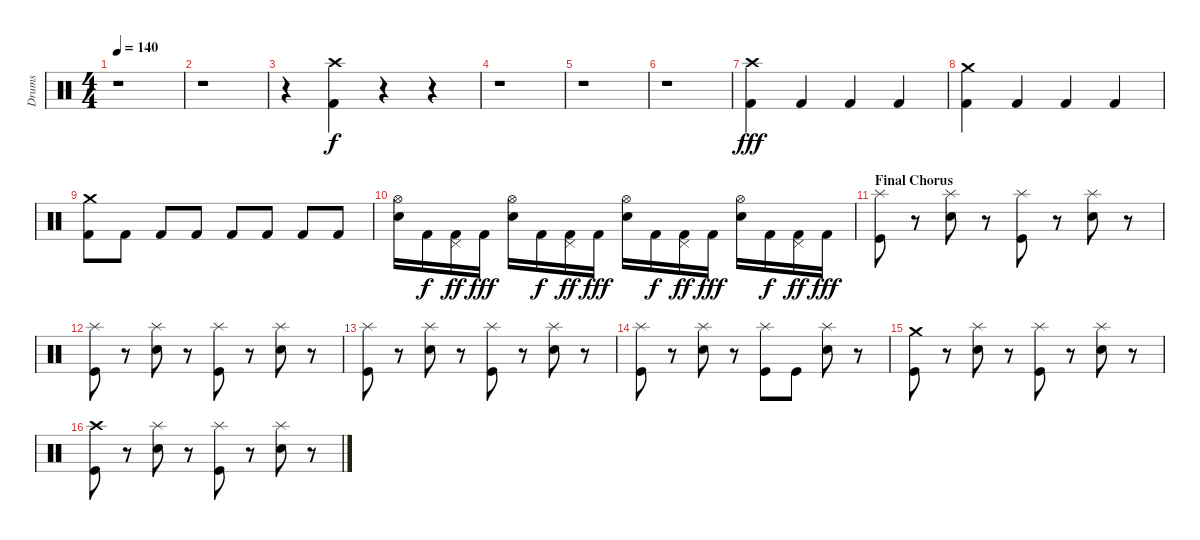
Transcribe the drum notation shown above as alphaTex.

\track ("Drums" "Drums") {instrument percussion}
\staff {score}
\articulation defaults
\ts (4 4)
\tempo 140
\clef neutral
\ks c
r.1{dy f} |
r.1 |
r.4 ("Crash high (hit)" "Kick (hit) 2").4 r.4 r.4 |
r.1 |
r.1 |
r.1 |
("Crash high (hit)" "Kick (hit) 2").4{dy fff} "Kick (hit) 2".4 "Kick (hit) 2".4 "Kick (hit) 2".4 |
("Crash medium (hit)" "Kick (hit) 2").4 "Kick (hit) 2".4 "Kick (hit) 2".4 "Kick (hit) 2".4 |
("Crash medium (hit)" "Kick (hit) 2").8 "Kick (hit) 2".8 "Kick (hit) 2".8 "Kick (hit) 2".8 "Kick (hit) 2".8 "Kick (hit) 2".8 "Kick (hit) 2".8 "Kick (hit) 2".8 |
("Hi-Hat (open)" "Electric Snare (hit)").16 "Kick (hit) 2".16{dy f} ("Pedal Hi-Hat (hit)" "Kick (hit) 2").16{dy ff} "Kick (hit) 2".16{dy fff} ("Hi-Hat (open)" "Electric Snare (hit)").16 "Kick (hit) 2".16{dy f} ("Pedal Hi-Hat (hit)" "Kick (hit) 2").16{dy ff} "Kick (hit) 2".16{dy fff} ("Hi-Hat (open)" "Electric Snare (hit)").16 "Kick (hit) 2".16{dy f} ("Pedal Hi-Hat (hit)" "Kick (hit) 2").16{dy ff} "Kick (hit) 2".16{dy fff} ("Hi-Hat (open)" "Electric Snare (hit)").16 "Kick (hit) 2".16{dy f} ("Pedal Hi-Hat (hit)" "Kick (hit) 2").16{dy ff} "Kick (hit) 2".16{dy fff} |
\section ("" "Final Chorus ")
("Splash (hit)" "Kick (hit)").8 r.8 ("Splash (hit)" "Electric Snare (hit)").8 r.8 ("Splash (hit)" "Kick (hit)").8 r.8 ("Splash (hit)" "Electric Snare (hit)").8 r.8 |
("Splash (hit)" "Kick (hit)").8 r.8 ("Splash (hit)" "Electric Snare (hit)").8 r.8 ("Splash (hit)" "Kick (hit)").8 r.8 ("Splash (hit)" "Electric Snare (hit)").8 r.8 |
("Splash (hit)" "Kick (hit)").8 r.8 ("Splash (hit)" "Electric Snare (hit)").8 r.8 ("Splash (hit)" "Kick (hit)").8 r.8 ("Splash (hit)" "Electric Snare (hit)").8 r.8 |
("Splash (hit)" "Kick (hit)").8 r.8 ("Splash (hit)" "Electric Snare (hit)").8 r.8 ("Splash (hit)" "Kick (hit)").8 "Kick (hit)".8 ("Splash (hit)" "Electric Snare (hit)").8 r.8 |
("Crash medium (hit)" "Kick (hit)").8 r.8 ("Splash (hit)" "Electric Snare (hit)").8 r.8 ("Splash (hit)" "Kick (hit)").8 r.8 ("Splash (hit)" "Electric Snare (hit)").8 r.8 |
("Crash high (hit)" "Kick (hit)").8 r.8 ("Splash (hit)" "Electric Snare (hit)").8 r.8 ("Splash (hit)" "Kick (hit)").8 r.8 ("Splash (hit)" "Electric Snare (hit)").8 r.8
